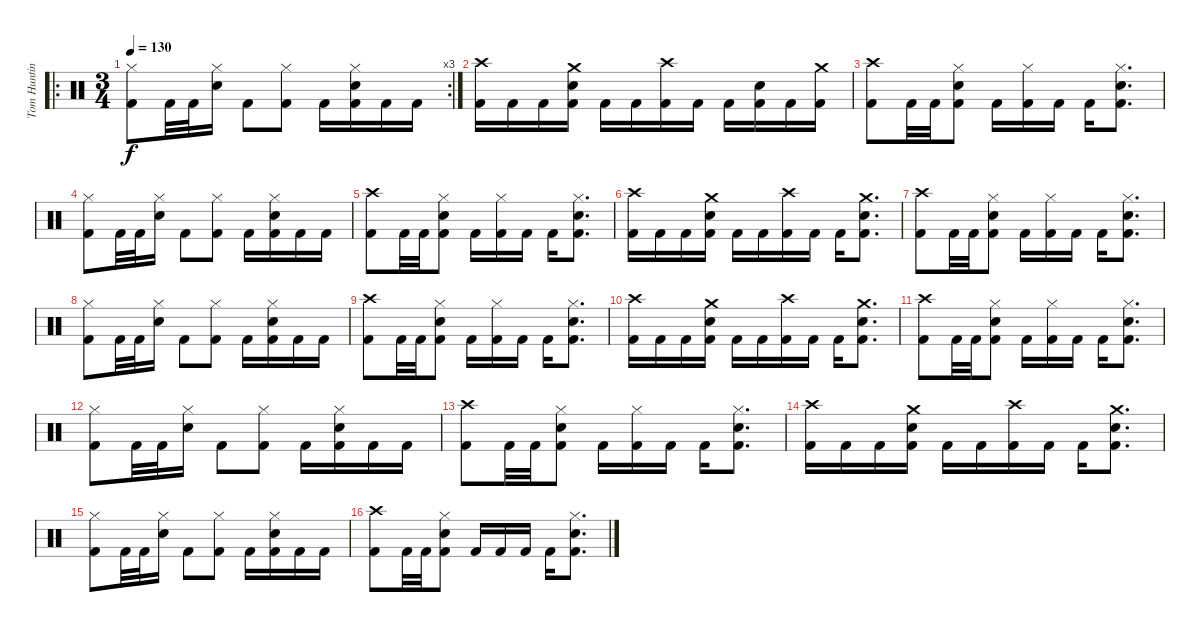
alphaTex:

\track ("Tom Hunting" "Tom Huntin") {instrument percussion}
\staff {score}
\articulation defaults
\ro
\rc 3
\ts (3 4)
\tempo 130
\clef neutral
\ks c
("Hi-Hat (closed)" "Kick (hit) 2").8{dy f} "Kick (hit) 2".32 "Kick (hit) 2".32 ("Hi-Hat (closed)" "Electric Snare (hit)").16 "Kick (hit) 2".8 ("Hi-Hat (closed)" "Kick (hit) 2").8 "Kick (hit) 2".16 ("Hi-Hat (closed)" "Electric Snare (hit)" "Kick (hit) 2").16 "Kick (hit) 2".16 "Kick (hit) 2".16 |
("Crash high (hit)" "Kick (hit) 2").16 "Kick (hit) 2".16 "Kick (hit) 2".16 ("Crash medium (hit)" "Electric Snare (hit)" "Kick (hit) 2").16 "Kick (hit) 2".16 "Kick (hit) 2".16 ("Crash high (hit)" "Kick (hit) 2").16 "Kick (hit) 2".16 "Kick (hit) 2".16 ("Electric Snare (hit)" "Kick (hit) 2").16 "Kick (hit) 2".16 ("Crash medium (hit)" "Kick (hit) 2").16 |
("Crash high (hit)" "Kick (hit) 2").8 "Kick (hit) 2".32 "Kick (hit) 2".32 ("Hi-Hat (closed)" "Electric Snare (hit)" "Kick (hit) 2").8 "Kick (hit) 2".16 ("Hi-Hat (closed)" "Kick (hit) 2").16 "Kick (hit) 2".16 "Kick (hit) 2".16 ("Hi-Hat (closed)" "Electric Snare (hit)" "Kick (hit) 2").8{d} |
("Hi-Hat (closed)" "Kick (hit) 2").8 "Kick (hit) 2".32 "Kick (hit) 2".32 ("Hi-Hat (closed)" "Electric Snare (hit)").16 "Kick (hit) 2".8 ("Hi-Hat (closed)" "Kick (hit) 2").8 "Kick (hit) 2".16 ("Hi-Hat (closed)" "Electric Snare (hit)" "Kick (hit) 2").16 "Kick (hit) 2".16 "Kick (hit) 2".16 |
("Crash high (hit)" "Kick (hit) 2").8 "Kick (hit) 2".32 "Kick (hit) 2".32 ("Hi-Hat (closed)" "Electric Snare (hit)" "Kick (hit) 2").8 "Kick (hit) 2".16 ("Hi-Hat (closed)" "Kick (hit) 2").16 "Kick (hit) 2".16 "Kick (hit) 2".16 ("Hi-Hat (closed)" "Electric Snare (hit)" "Kick (hit) 2").8{d} |
("Crash high (hit)" "Kick (hit) 2").16 "Kick (hit) 2".16 "Kick (hit) 2".16 ("Crash medium (hit)" "Electric Snare (hit)" "Kick (hit) 2").16 "Kick (hit) 2".16 "Kick (hit) 2".16 ("Crash high (hit)" "Kick (hit) 2").16 "Kick (hit) 2".16 "Kick (hit) 2".16 ("Crash medium (hit)" "Electric Snare (hit)" "Kick (hit) 2").8{d} |
("Crash high (hit)" "Kick (hit) 2").8 "Kick (hit) 2".32 "Kick (hit) 2".32 ("Hi-Hat (closed)" "Electric Snare (hit)" "Kick (hit) 2").8 "Kick (hit) 2".16 ("Hi-Hat (closed)" "Kick (hit) 2").16 "Kick (hit) 2".16 "Kick (hit) 2".16 ("Hi-Hat (closed)" "Electric Snare (hit)" "Kick (hit) 2").8{d} |
("Hi-Hat (closed)" "Kick (hit) 2").8 "Kick (hit) 2".32 "Kick (hit) 2".32 ("Hi-Hat (closed)" "Electric Snare (hit)").16 "Kick (hit) 2".8 ("Hi-Hat (closed)" "Kick (hit) 2").8 "Kick (hit) 2".16 ("Hi-Hat (closed)" "Electric Snare (hit)" "Kick (hit) 2").16 "Kick (hit) 2".16 "Kick (hit) 2".16 |
("Crash high (hit)" "Kick (hit) 2").8 "Kick (hit) 2".32 "Kick (hit) 2".32 ("Hi-Hat (closed)" "Electric Snare (hit)" "Kick (hit) 2").8 "Kick (hit) 2".16 ("Hi-Hat (closed)" "Kick (hit) 2").16 "Kick (hit) 2".16 "Kick (hit) 2".16 ("Hi-Hat (closed)" "Electric Snare (hit)" "Kick (hit) 2").8{d} |
("Crash high (hit)" "Kick (hit) 2").16 "Kick (hit) 2".16 "Kick (hit) 2".16 ("Crash medium (hit)" "Electric Snare (hit)" "Kick (hit) 2").16 "Kick (hit) 2".16 "Kick (hit) 2".16 ("Crash high (hit)" "Kick (hit) 2").16 "Kick (hit) 2".16 "Kick (hit) 2".16 ("Crash medium (hit)" "Electric Snare (hit)" "Kick (hit) 2").8{d} |
("Crash high (hit)" "Kick (hit) 2").8 "Kick (hit) 2".32 "Kick (hit) 2".32 ("Hi-Hat (closed)" "Electric Snare (hit)" "Kick (hit) 2").8 "Kick (hit) 2".16 ("Hi-Hat (closed)" "Kick (hit) 2").16 "Kick (hit) 2".16 "Kick (hit) 2".16 ("Hi-Hat (closed)" "Electric Snare (hit)" "Kick (hit) 2").8{d} |
("Hi-Hat (closed)" "Kick (hit) 2").8 "Kick (hit) 2".32 "Kick (hit) 2".32 ("Hi-Hat (closed)" "Electric Snare (hit)").16 "Kick (hit) 2".8 ("Hi-Hat (closed)" "Kick (hit) 2").8 "Kick (hit) 2".16 ("Hi-Hat (closed)" "Electric Snare (hit)" "Kick (hit) 2").16 "Kick (hit) 2".16 "Kick (hit) 2".16 |
("Crash high (hit)" "Kick (hit) 2").8 "Kick (hit) 2".32 "Kick (hit) 2".32 ("Hi-Hat (closed)" "Electric Snare (hit)" "Kick (hit) 2").8 "Kick (hit) 2".16 ("Hi-Hat (closed)" "Kick (hit) 2").16 "Kick (hit) 2".16 "Kick (hit) 2".16 ("Hi-Hat (closed)" "Electric Snare (hit)" "Kick (hit) 2").8{d} |
("Crash high (hit)" "Kick (hit) 2").16 "Kick (hit) 2".16 "Kick (hit) 2".16 ("Crash medium (hit)" "Electric Snare (hit)" "Kick (hit) 2").16 "Kick (hit) 2".16 "Kick (hit) 2".16 ("Crash high (hit)" "Kick (hit) 2").16 "Kick (hit) 2".16 "Kick (hit) 2".16 ("Crash medium (hit)" "Electric Snare (hit)" "Kick (hit) 2").8{d} |
("Hi-Hat (closed)" "Kick (hit) 2").8 "Kick (hit) 2".32 "Kick (hit) 2".32 ("Hi-Hat (closed)" "Electric Snare (hit)").16 "Kick (hit) 2".8 ("Hi-Hat (closed)" "Kick (hit) 2").8 "Kick (hit) 2".16 ("Hi-Hat (closed)" "Electric Snare (hit)" "Kick (hit) 2").16 "Kick (hit) 2".16 "Kick (hit) 2".16 |
("Crash high (hit)" "Kick (hit) 2").8 "Kick (hit) 2".32 "Kick (hit) 2".32 ("Hi-Hat (closed)" "Electric Snare (hit)" "Kick (hit) 2").8 "Kick (hit) 2".16 "Kick (hit) 2".16 "Kick (hit) 2".16 "Kick (hit) 2".16 ("Hi-Hat (closed)" "Electric Snare (hit)" "Kick (hit) 2").8{d}
